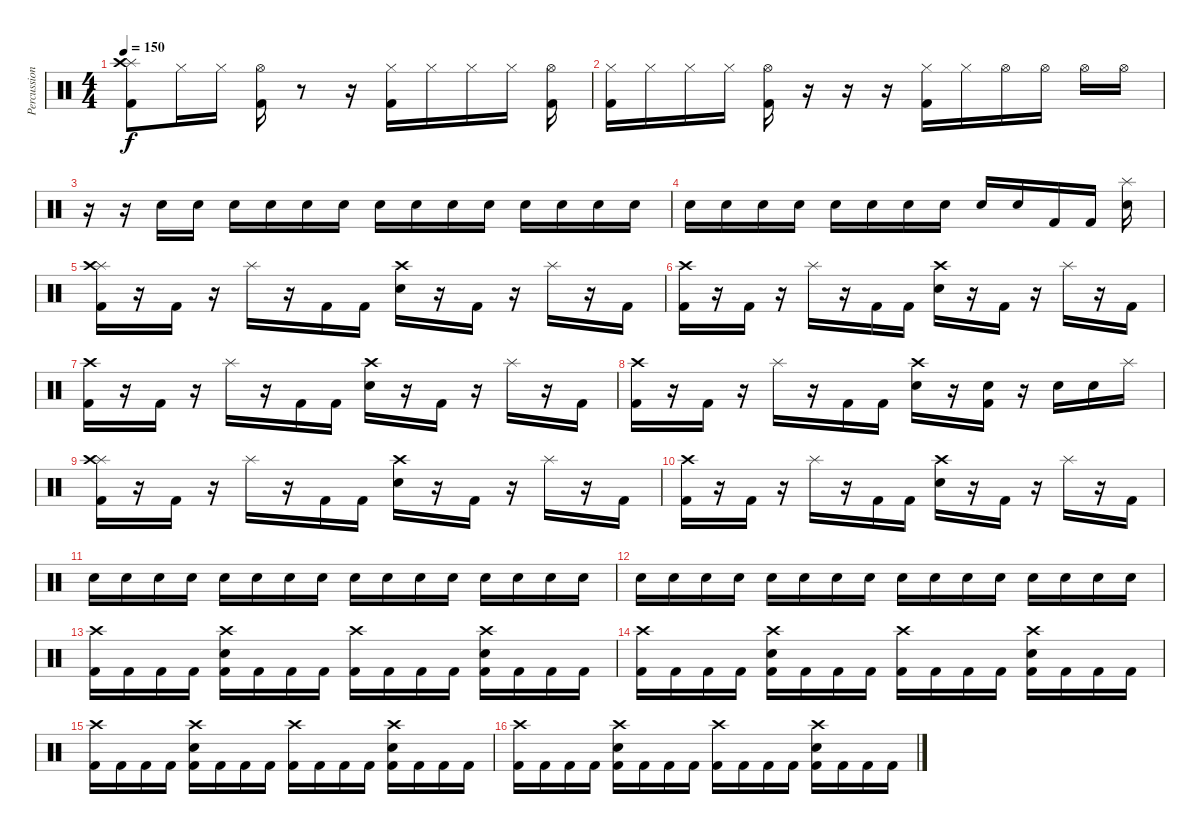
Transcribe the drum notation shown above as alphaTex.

\track ("Percussion" "Percussion") {instrument percussion}
\staff {score}
\articulation defaults
\ts (4 4)
\tempo 150
\clef neutral
\ks c
("Splash (hit)" "Crash high (hit)" "Kick (hit) 2").8{dy f} "Hi-Hat (closed)".16 "Hi-Hat (closed)".16 ("Hi-Hat (open)" "Kick (hit) 2").16 r.8 r.16 ("Hi-Hat (closed)" "Kick (hit) 2").16 "Hi-Hat (closed)".16 "Hi-Hat (closed)".16 "Hi-Hat (closed)".16 ("Hi-Hat (open)" "Kick (hit) 2").16 |
("Hi-Hat (closed)" "Kick (hit) 2").16 "Hi-Hat (closed)".16 "Hi-Hat (closed)".16 "Hi-Hat (closed)".16 ("Hi-Hat (open)" "Kick (hit) 2").16 r.16 r.16 r.16 ("Hi-Hat (closed)" "Kick (hit) 2").16 "Hi-Hat (closed)".16 "Hi-Hat (open)".16 "Hi-Hat (open)".16 "Hi-Hat (open)".16 "Hi-Hat (open)".16 |
r.16 r.16 "Snare (hit) 2".16 "Snare (hit) 2".16 "Snare (hit) 2".16 "Snare (hit) 2".16 "Snare (hit) 2".16 "Snare (hit) 2".16 "Snare (hit) 2".16 "Snare (hit) 2".16 "Snare (hit) 2".16 "Snare (hit) 2".16 "Snare (hit) 2".16 "Snare (hit) 2".16 "Snare (hit) 2".16 "Snare (hit) 2".16 |
"Snare (hit) 2".16 "Snare (hit) 2".16 "Snare (hit) 2".16 "Snare (hit) 2".16 "Snare (hit) 2".16 "Snare (hit) 2".16 "Snare (hit) 2".16 "Snare (hit) 2".16 "Snare (hit) 2".16 "Snare (hit) 2".16 "Kick (hit) 2".16 "Kick (hit) 2".16 ("Splash (hit)" "Snare (hit) 2").16 |
("Splash (hit)" "Crash high (hit)" "Kick (hit) 2").16 r.16 "Kick (hit) 2".16 r.16 "Splash (hit)".16 r.16 "Kick (hit) 2".16 "Kick (hit) 2".16 ("Crash high (hit)" "Snare (hit) 2").16 r.16 "Kick (hit) 2".16 r.16 "Splash (hit)".16 r.16 "Kick (hit) 2".16 |
("Crash high (hit)" "Kick (hit) 2").16 r.16 "Kick (hit) 2".16 r.16 "Splash (hit)".16 r.16 "Kick (hit) 2".16 "Kick (hit) 2".16 ("Crash high (hit)" "Snare (hit) 2").16 r.16 "Kick (hit) 2".16 r.16 "Splash (hit)".16 r.16 "Kick (hit) 2".16 |
("Crash high (hit)" "Kick (hit) 2").16 r.16 "Kick (hit) 2".16 r.16 "Splash (hit)".16 r.16 "Kick (hit) 2".16 "Kick (hit) 2".16 ("Crash high (hit)" "Snare (hit) 2").16 r.16 "Kick (hit) 2".16 r.16 "Splash (hit)".16 r.16 "Kick (hit) 2".16 |
("Crash high (hit)" "Kick (hit) 2").16 r.16 "Kick (hit) 2".16 r.16 "Splash (hit)".16 r.16 "Kick (hit) 2".16 "Kick (hit) 2".16 ("Crash high (hit)" "Snare (hit) 2").16 r.16 ("Snare (hit) 2" "Kick (hit) 2").16 r.16 "Snare (hit) 2".16 "Snare (hit) 2".16 "Splash (hit)".16 |
("Splash (hit)" "Crash high (hit)" "Kick (hit) 2").16 r.16 "Kick (hit) 2".16 r.16 "Splash (hit)".16 r.16 "Kick (hit) 2".16 "Kick (hit) 2".16 ("Crash high (hit)" "Snare (hit) 2").16 r.16 "Kick (hit) 2".16 r.16 "Splash (hit)".16 r.16 "Kick (hit) 2".16 |
("Crash high (hit)" "Kick (hit) 2").16 r.16 "Kick (hit) 2".16 r.16 "Splash (hit)".16 r.16 "Kick (hit) 2".16 "Kick (hit) 2".16 ("Crash high (hit)" "Snare (hit) 2").16 r.16 "Kick (hit) 2".16 r.16 "Splash (hit)".16 r.16 "Kick (hit) 2".16 |
"Snare (hit) 2".16 "Snare (hit) 2".16 "Snare (hit) 2".16 "Snare (hit) 2".16 "Snare (hit) 2".16 "Snare (hit) 2".16 "Snare (hit) 2".16 "Snare (hit) 2".16 "Snare (hit) 2".16 "Snare (hit) 2".16 "Snare (hit) 2".16 "Snare (hit) 2".16 "Snare (hit) 2".16 "Snare (hit) 2".16 "Snare (hit) 2".16 "Snare (hit) 2".16 |
"Snare (hit) 2".16 "Snare (hit) 2".16 "Snare (hit) 2".16 "Snare (hit) 2".16 "Snare (hit) 2".16 "Snare (hit) 2".16 "Snare (hit) 2".16 "Snare (hit) 2".16 "Snare (hit) 2".16 "Snare (hit) 2".16 "Snare (hit) 2".16 "Snare (hit) 2".16 "Snare (hit) 2".16 "Snare (hit) 2".16 "Snare (hit) 2".16 "Snare (hit) 2".16 |
("Crash high (hit)" "Kick (hit) 2").16 "Kick (hit) 2".16 "Kick (hit) 2".16 "Kick (hit) 2".16 ("Crash high (hit)" "Snare (hit) 2" "Kick (hit) 2").16 "Kick (hit) 2".16 "Kick (hit) 2".16 "Kick (hit) 2".16 ("Crash high (hit)" "Kick (hit) 2").16 "Kick (hit) 2".16 "Kick (hit) 2".16 "Kick (hit) 2".16 ("Crash high (hit)" "Snare (hit) 2" "Kick (hit) 2").16 "Kick (hit) 2".16 "Kick (hit) 2".16 "Kick (hit) 2".16 |
("Crash high (hit)" "Kick (hit) 2").16 "Kick (hit) 2".16 "Kick (hit) 2".16 "Kick (hit) 2".16 ("Crash high (hit)" "Snare (hit) 2" "Kick (hit) 2").16 "Kick (hit) 2".16 "Kick (hit) 2".16 "Kick (hit) 2".16 ("Crash high (hit)" "Kick (hit) 2").16 "Kick (hit) 2".16 "Kick (hit) 2".16 "Kick (hit) 2".16 ("Crash high (hit)" "Snare (hit) 2" "Kick (hit) 2").16 "Kick (hit) 2".16 "Kick (hit) 2".16 "Kick (hit) 2".16 |
("Crash high (hit)" "Kick (hit) 2").16 "Kick (hit) 2".16 "Kick (hit) 2".16 "Kick (hit) 2".16 ("Crash high (hit)" "Snare (hit) 2" "Kick (hit) 2").16 "Kick (hit) 2".16 "Kick (hit) 2".16 "Kick (hit) 2".16 ("Crash high (hit)" "Kick (hit) 2").16 "Kick (hit) 2".16 "Kick (hit) 2".16 "Kick (hit) 2".16 ("Crash high (hit)" "Snare (hit) 2" "Kick (hit) 2").16 "Kick (hit) 2".16 "Kick (hit) 2".16 "Kick (hit) 2".16 |
("Crash high (hit)" "Kick (hit) 2").16 "Kick (hit) 2".16 "Kick (hit) 2".16 "Kick (hit) 2".16 ("Crash high (hit)" "Snare (hit) 2" "Kick (hit) 2").16 "Kick (hit) 2".16 "Kick (hit) 2".16 "Kick (hit) 2".16 ("Crash high (hit)" "Kick (hit) 2").16 "Kick (hit) 2".16 "Kick (hit) 2".16 "Kick (hit) 2".16 ("Crash high (hit)" "Snare (hit) 2" "Kick (hit) 2").16 "Kick (hit) 2".16 "Kick (hit) 2".16 "Kick (hit) 2".16
